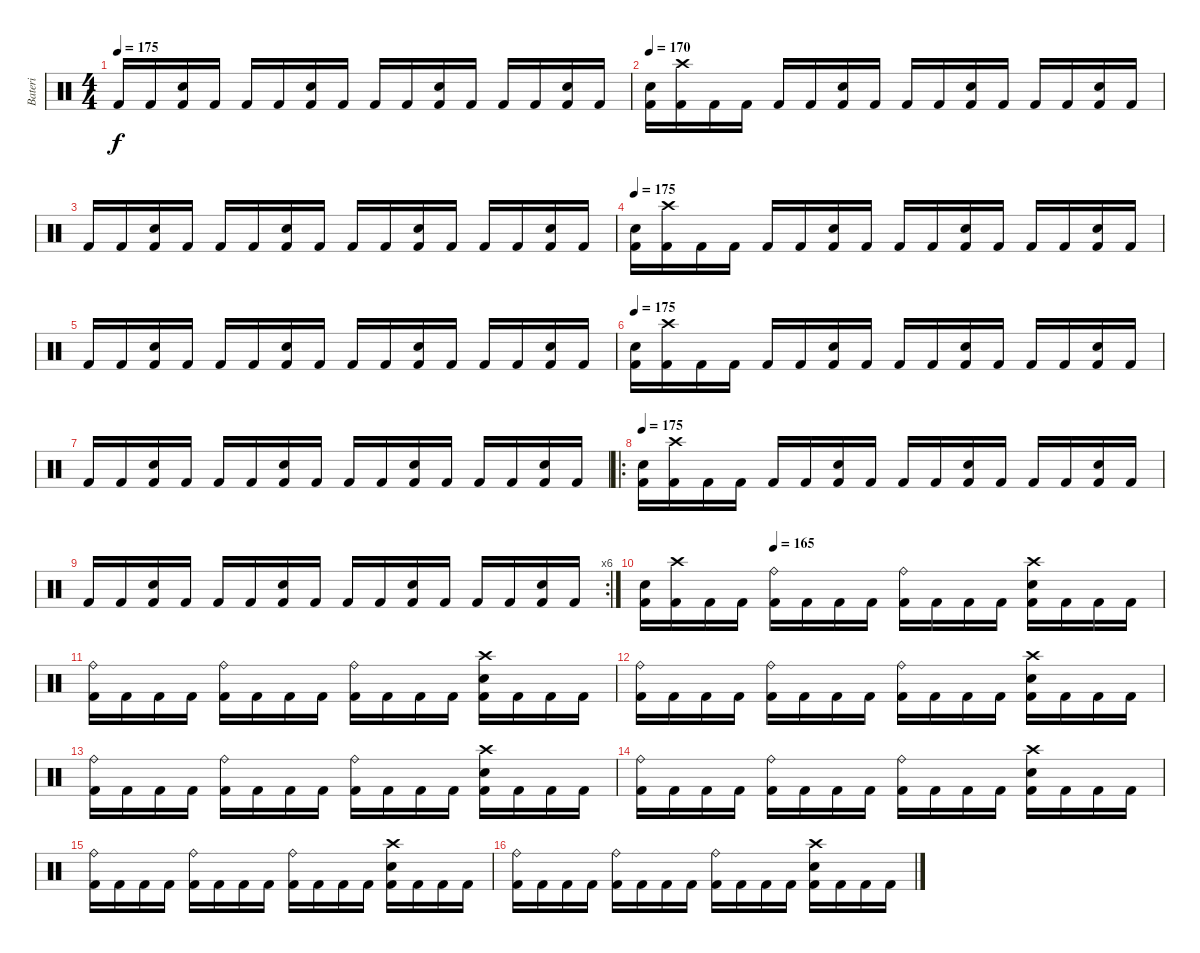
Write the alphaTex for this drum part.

\track ("Bateri" "Bateri") {instrument percussion}
\staff {score}
\articulation defaults
\ts (4 4)
\tempo 175
\clef neutral
\ks c "Kick (hit) 2".16{dy f} "Kick (hit) 2".16
("Snare (hit) 2" "Kick (hit) 2").16 "Kick (hit) 2".16 "Kick (hit) 2".16 "Kick (hit) 2".16 ("Snare (hit) 2" "Kick (hit) 2").16 "Kick (hit) 2".16 "Kick (hit) 2".16 "Kick (hit) 2".16 ("Snare (hit) 2" "Kick (hit) 2").16 "Kick (hit) 2".16 "Kick (hit) 2".16 "Kick (hit) 2".16 ("Snare (hit) 2" "Kick (hit) 2").16 "Kick (hit) 2".16 |
\tempo 170
("Snare (hit) 2" "Kick (hit) 2").16 ("Crash high (hit)" "Kick (hit) 2").16 "Kick (hit) 2".16 "Kick (hit) 2".16 "Kick (hit) 2".16 "Kick (hit) 2".16 ("Snare (hit) 2" "Kick (hit) 2").16 "Kick (hit) 2".16 "Kick (hit) 2".16 "Kick (hit) 2".16 ("Snare (hit) 2" "Kick (hit) 2").16 "Kick (hit) 2".16 "Kick (hit) 2".16 "Kick (hit) 2".16 ("Snare (hit) 2" "Kick (hit) 2").16 "Kick (hit) 2".16 |
"Kick (hit) 2".16 "Kick (hit) 2".16 ("Snare (hit) 2" "Kick (hit) 2").16 "Kick (hit) 2".16 "Kick (hit) 2".16 "Kick (hit) 2".16 ("Snare (hit) 2" "Kick (hit) 2").16 "Kick (hit) 2".16 "Kick (hit) 2".16 "Kick (hit) 2".16 ("Snare (hit) 2" "Kick (hit) 2").16 "Kick (hit) 2".16 "Kick (hit) 2".16 "Kick (hit) 2".16 ("Snare (hit) 2" "Kick (hit) 2").16 "Kick (hit) 2".16 |
\tempo 175
("Snare (hit) 2" "Kick (hit) 2").16 ("Crash high (hit)" "Kick (hit) 2").16 "Kick (hit) 2".16 "Kick (hit) 2".16 "Kick (hit) 2".16 "Kick (hit) 2".16 ("Snare (hit) 2" "Kick (hit) 2").16 "Kick (hit) 2".16 "Kick (hit) 2".16 "Kick (hit) 2".16 ("Snare (hit) 2" "Kick (hit) 2").16 "Kick (hit) 2".16 "Kick (hit) 2".16 "Kick (hit) 2".16 ("Snare (hit) 2" "Kick (hit) 2").16 "Kick (hit) 2".16 |
"Kick (hit) 2".16 "Kick (hit) 2".16 ("Snare (hit) 2" "Kick (hit) 2").16 "Kick (hit) 2".16 "Kick (hit) 2".16 "Kick (hit) 2".16 ("Snare (hit) 2" "Kick (hit) 2").16 "Kick (hit) 2".16 "Kick (hit) 2".16 "Kick (hit) 2".16 ("Snare (hit) 2" "Kick (hit) 2").16 "Kick (hit) 2".16 "Kick (hit) 2".16 "Kick (hit) 2".16 ("Snare (hit) 2" "Kick (hit) 2").16 "Kick (hit) 2".16 |
\tempo 175
("Snare (hit) 2" "Kick (hit) 2").16 ("Crash high (hit)" "Kick (hit) 2").16 "Kick (hit) 2".16 "Kick (hit) 2".16 "Kick (hit) 2".16 "Kick (hit) 2".16 ("Snare (hit) 2" "Kick (hit) 2").16 "Kick (hit) 2".16 "Kick (hit) 2".16 "Kick (hit) 2".16 ("Snare (hit) 2" "Kick (hit) 2").16 "Kick (hit) 2".16 "Kick (hit) 2".16 "Kick (hit) 2".16 ("Snare (hit) 2" "Kick (hit) 2").16 "Kick (hit) 2".16 |
"Kick (hit) 2".16 "Kick (hit) 2".16 ("Snare (hit) 2" "Kick (hit) 2").16 "Kick (hit) 2".16 "Kick (hit) 2".16 "Kick (hit) 2".16 ("Snare (hit) 2" "Kick (hit) 2").16 "Kick (hit) 2".16 "Kick (hit) 2".16 "Kick (hit) 2".16 ("Snare (hit) 2" "Kick (hit) 2").16 "Kick (hit) 2".16 "Kick (hit) 2".16 "Kick (hit) 2".16 ("Snare (hit) 2" "Kick (hit) 2").16 "Kick (hit) 2".16 |
\ro
\tempo 175
("Snare (hit) 2" "Kick (hit) 2").16 ("Crash high (hit)" "Kick (hit) 2").16 "Kick (hit) 2".16 "Kick (hit) 2".16 "Kick (hit) 2".16 "Kick (hit) 2".16 ("Snare (hit) 2" "Kick (hit) 2").16 "Kick (hit) 2".16 "Kick (hit) 2".16 "Kick (hit) 2".16 ("Snare (hit) 2" "Kick (hit) 2").16 "Kick (hit) 2".16 "Kick (hit) 2".16 "Kick (hit) 2".16 ("Snare (hit) 2" "Kick (hit) 2").16 "Kick (hit) 2".16 |
\rc 6 "Kick (hit) 2".16 "Kick (hit) 2".16
("Snare (hit) 2" "Kick (hit) 2").16 "Kick (hit) 2".16 "Kick (hit) 2".16 "Kick (hit) 2".16 ("Snare (hit) 2" "Kick (hit) 2").16 "Kick (hit) 2".16 "Kick (hit) 2".16 "Kick (hit) 2".16 ("Snare (hit) 2" "Kick (hit) 2").16 "Kick (hit) 2".16 "Kick (hit) 2".16 "Kick (hit) 2".16 ("Snare (hit) 2" "Kick (hit) 2").16 "Kick (hit) 2".16 |
\section ("" "")
\tempo (165 0.25)
("Snare (hit) 2" "Kick (hit) 2").16 ("Crash high (hit)" "Kick (hit) 2").16 "Kick (hit) 2".16 "Kick (hit) 2".16 ("Ride (bell)" "Kick (hit) 2").16 "Kick (hit) 2".16 "Kick (hit) 2".16 "Kick (hit) 2".16 ("Ride (bell)" "Kick (hit) 2").16 "Kick (hit) 2".16 "Kick (hit) 2".16 "Kick (hit) 2".16 ("Snare (hit) 2" "Crash high (hit)" "Kick (hit) 2").16 "Kick (hit) 2".16 "Kick (hit) 2".16 "Kick (hit) 2".16 |
("Ride (bell)" "Kick (hit) 2").16 "Kick (hit) 2".16 "Kick (hit) 2".16 "Kick (hit) 2".16 ("Ride (bell)" "Kick (hit) 2").16 "Kick (hit) 2".16 "Kick (hit) 2".16 "Kick (hit) 2".16 ("Ride (bell)" "Kick (hit) 2").16 "Kick (hit) 2".16 "Kick (hit) 2".16 "Kick (hit) 2".16 ("Snare (hit) 2" "Crash high (hit)" "Kick (hit) 2").16 "Kick (hit) 2".16 "Kick (hit) 2".16 "Kick (hit) 2".16 |
("Ride (bell)" "Kick (hit) 2").16 "Kick (hit) 2".16 "Kick (hit) 2".16 "Kick (hit) 2".16 ("Ride (bell)" "Kick (hit) 2").16 "Kick (hit) 2".16 "Kick (hit) 2".16 "Kick (hit) 2".16 ("Ride (bell)" "Kick (hit) 2").16 "Kick (hit) 2".16 "Kick (hit) 2".16 "Kick (hit) 2".16 ("Snare (hit) 2" "Crash high (hit)" "Kick (hit) 2").16 "Kick (hit) 2".16 "Kick (hit) 2".16 "Kick (hit) 2".16 |
("Ride (bell)" "Kick (hit) 2").16 "Kick (hit) 2".16 "Kick (hit) 2".16 "Kick (hit) 2".16 ("Ride (bell)" "Kick (hit) 2").16 "Kick (hit) 2".16 "Kick (hit) 2".16 "Kick (hit) 2".16 ("Ride (bell)" "Kick (hit) 2").16 "Kick (hit) 2".16 "Kick (hit) 2".16 "Kick (hit) 2".16 ("Snare (hit) 2" "Crash high (hit)" "Kick (hit) 2").16 "Kick (hit) 2".16 "Kick (hit) 2".16 "Kick (hit) 2".16 |
("Ride (bell)" "Kick (hit) 2").16 "Kick (hit) 2".16 "Kick (hit) 2".16 "Kick (hit) 2".16 ("Ride (bell)" "Kick (hit) 2").16 "Kick (hit) 2".16 "Kick (hit) 2".16 "Kick (hit) 2".16 ("Ride (bell)" "Kick (hit) 2").16 "Kick (hit) 2".16 "Kick (hit) 2".16 "Kick (hit) 2".16 ("Snare (hit) 2" "Crash high (hit)" "Kick (hit) 2").16 "Kick (hit) 2".16 "Kick (hit) 2".16 "Kick (hit) 2".16 |
("Ride (bell)" "Kick (hit) 2").16 "Kick (hit) 2".16 "Kick (hit) 2".16 "Kick (hit) 2".16 ("Ride (bell)" "Kick (hit) 2").16 "Kick (hit) 2".16 "Kick (hit) 2".16 "Kick (hit) 2".16 ("Ride (bell)" "Kick (hit) 2").16 "Kick (hit) 2".16 "Kick (hit) 2".16 "Kick (hit) 2".16 ("Snare (hit) 2" "Crash high (hit)" "Kick (hit) 2").16 "Kick (hit) 2".16 "Kick (hit) 2".16 "Kick (hit) 2".16 |
("Ride (bell)" "Kick (hit) 2").16 "Kick (hit) 2".16 "Kick (hit) 2".16 "Kick (hit) 2".16 ("Ride (bell)" "Kick (hit) 2").16 "Kick (hit) 2".16 "Kick (hit) 2".16 "Kick (hit) 2".16 ("Ride (bell)" "Kick (hit) 2").16 "Kick (hit) 2".16 "Kick (hit) 2".16 "Kick (hit) 2".16 ("Snare (hit) 2" "Crash high (hit)" "Kick (hit) 2").16 "Kick (hit) 2".16 "Kick (hit) 2".16 "Kick (hit) 2".16
